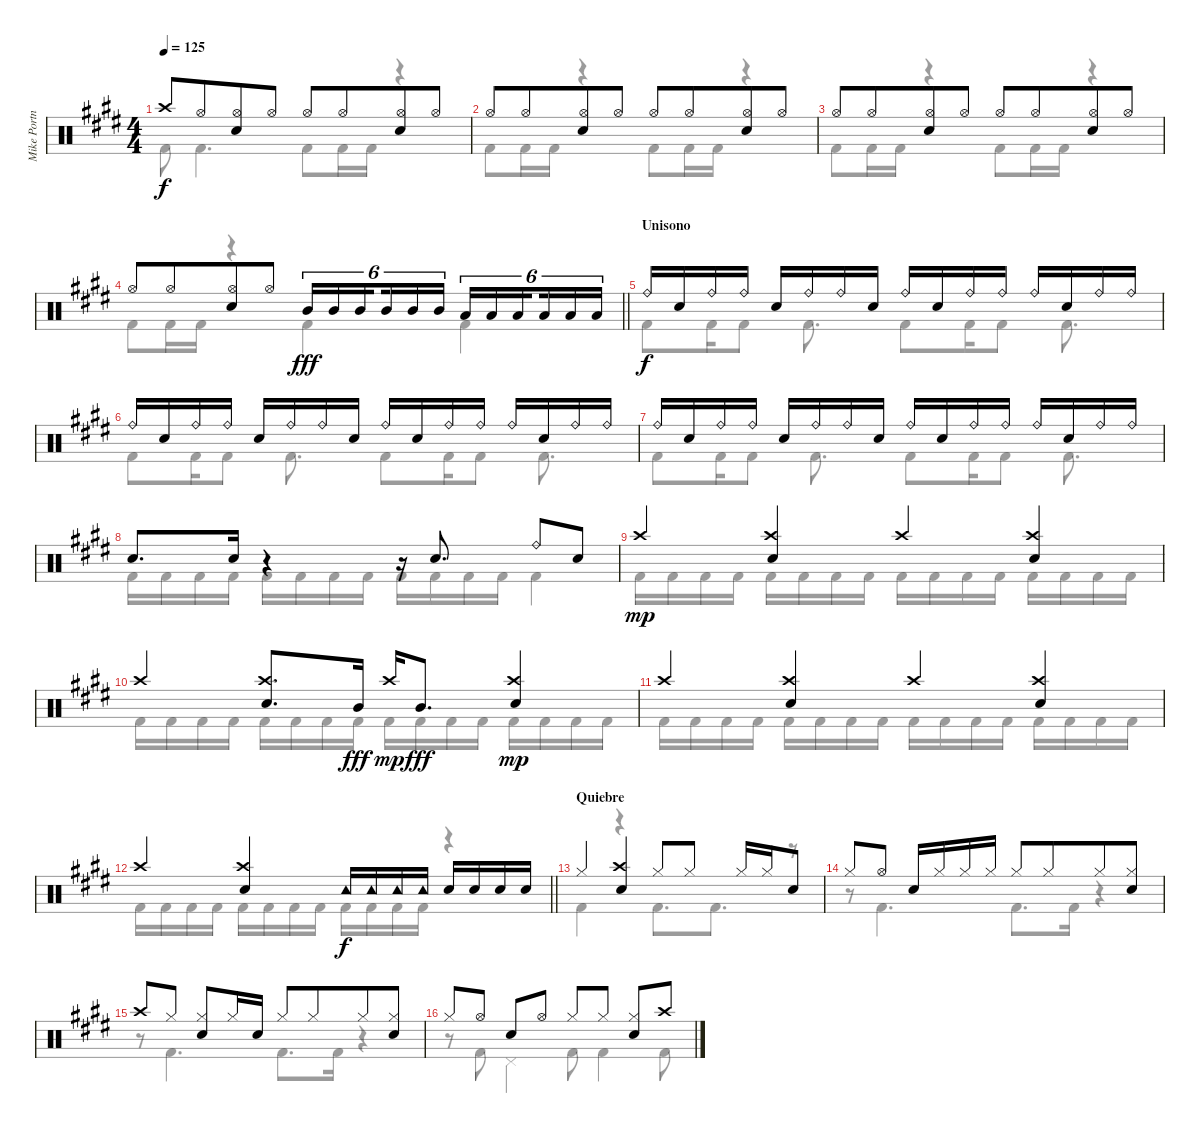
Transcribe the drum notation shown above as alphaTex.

\track ("Mike Portnoy" "Mike Portn") {instrument percussion}
\staff {score}
\articulation defaults
\voice
\ts (4 4)
\tempo 125
\clef neutral
\ks e "Crash high (hit)".8{dy f} "Hi-Hat (open)".8{beam merge}
("Hi-Hat (open)" "Snare (hit) 2").8 "Hi-Hat (open)".8 "Hi-Hat (open)".8 "Hi-Hat (open)".8{beam merge} ("Hi-Hat (open)" "Snare (hit) 2").8 "Hi-Hat (open)".8 |
"Hi-Hat (open)".8 "Hi-Hat (open)".8{beam merge} ("Hi-Hat (open)" "Snare (hit) 2").8 "Hi-Hat (open)".8 "Hi-Hat (open)".8 "Hi-Hat (open)".8{beam merge} ("Hi-Hat (open)" "Snare (hit) 2").8 "Hi-Hat (open)".8 |
"Hi-Hat (open)".8 "Hi-Hat (open)".8{beam merge} ("Hi-Hat (open)" "Snare (hit) 2").8 "Hi-Hat (open)".8 "Hi-Hat (open)".8 "Hi-Hat (open)".8{beam merge} ("Hi-Hat (open)" "Snare (hit) 2").8 "Hi-Hat (open)".8 |
\barLineRight lightlight "Hi-Hat (open)".8 "Hi-Hat (open)".8{beam merge}
("Hi-Hat (open)" "Snare (hit) 2").8 "Hi-Hat (open)".8 "Mid Tom (hit)".16{tu (6 4) dy fff volume 16} "Mid Tom (hit)".16{tu (6 4)} "Mid Tom (hit)".16{tu (6 4) beam splitsecondary} "Mid Tom (hit)".16{tu (6 4)} "Mid Tom (hit)".16{tu (6 4)} "Mid Tom (hit)".16{tu (6 4)} "Low Tom (hit)".16{tu (6 4)} "Low Tom (hit)".16{tu (6 4)} "Low Tom (hit)".16{tu (6 4) beam splitsecondary} "Low Tom (hit)".16{tu (6 4)} "Low Tom (hit)".16{tu (6 4)} "Low Tom (hit)".16{tu (6 4)} |
\section ("" "Unisono")
"Ride (bell)".16{dy f volume 13} "Snare (hit) 2".16 "Ride (bell)".16 "Ride (bell)".16 "Snare (hit) 2".16 "Ride (bell)".16 "Ride (bell)".16 "Snare (hit) 2".16 "Ride (bell)".16 "Snare (hit) 2".16 "Ride (bell)".16 "Ride (bell)".16 "Ride (bell)".16 "Snare (hit) 2".16 "Ride (bell)".16 "Ride (bell)".16 |
"Ride (bell)".16 "Snare (hit) 2".16 "Ride (bell)".16 "Ride (bell)".16 "Snare (hit) 2".16 "Ride (bell)".16 "Ride (bell)".16 "Snare (hit) 2".16 "Ride (bell)".16 "Snare (hit) 2".16 "Ride (bell)".16 "Ride (bell)".16 "Ride (bell)".16 "Snare (hit) 2".16 "Ride (bell)".16 "Ride (bell)".16 |
"Ride (bell)".16 "Snare (hit) 2".16 "Ride (bell)".16 "Ride (bell)".16 "Snare (hit) 2".16 "Ride (bell)".16 "Ride (bell)".16 "Snare (hit) 2".16 "Ride (bell)".16 "Snare (hit) 2".16 "Ride (bell)".16 "Ride (bell)".16 "Ride (bell)".16 "Snare (hit) 2".16 "Ride (bell)".16 "Ride (bell)".16 |
"Snare (hit) 2".8{d} "Snare (hit) 2".16 r.4 r.16 "Snare (hit) 2".8{d} "Ride (bell)".8 "Snare (hit) 2".8 |
"Crash high (hit)".4{dy mp} ("Crash high (hit)" "Snare (hit) 2").4 "Crash high (hit)".4 ("Crash high (hit)" "Snare (hit) 2").4 |
"Crash high (hit)".4 ("Crash high (hit)" "Snare (hit) 2").8{d} "Mid Tom (hit)".16{dy fff} "Crash high (hit)".16{dy mp} "Mid Tom (hit)".8{d dy fff} ("Crash high (hit)" "Snare (hit) 2").4{dy mp} |
"Crash high (hit)".4 ("Crash high (hit)" "Snare (hit) 2").4 "Crash high (hit)".4 ("Crash high (hit)" "Snare (hit) 2").4 |
\barLineRight lightlight "Crash high (hit)".4
("Crash high (hit)" "Snare (hit) 2").4 "Tambourine (hit)".16{dy f} "Tambourine (hit)".16 "Tambourine (hit)".16 "Tambourine (hit)".16 "Snare (hit) 2".16 "Snare (hit) 2".16 "Snare (hit) 2".16 "Snare (hit) 2".16 |
\section ("" "Quiebre")
"Hi-Hat (closed)".4 ("Crash high (hit)" "Snare (hit) 2").4 "Hi-Hat (closed)".8 "Hi-Hat (closed)".8 "Hi-Hat (closed)".16 "Hi-Hat (closed)".16 "Snare (hit) 2".8 |
"Hi-Hat (closed)".8 "Hi-Hat (open)".8 "Snare (hit) 2".16 "Hi-Hat (closed)".16 "Hi-Hat (closed)".16 "Hi-Hat (closed)".16 "Hi-Hat (closed)".8 "Hi-Hat (closed)".8{beam merge} "Hi-Hat (closed)".8 ("Hi-Hat (closed)" "Snare (hit) 2").8 |
"Crash high (hit)".8 "Hi-Hat (closed)".8 ("Hi-Hat (closed)" "Snare (hit) 2").8 "Hi-Hat (closed)".16 "Snare (hit) 2".16 "Hi-Hat (closed)".8 "Hi-Hat (closed)".8{beam merge} "Hi-Hat (closed)".8 ("Hi-Hat (closed)" "Snare (hit) 2").8 |
"Hi-Hat (closed)".8 "Hi-Hat (open)".8 "Snare (hit) 2".8 "Hi-Hat (open)".8 "Hi-Hat (closed)".8 "Hi-Hat (closed)".8 ("Hi-Hat (closed)" "Snare (hit) 2").8 "Crash high (hit)".8
\voice
\clef neutral
\ottava regular
\simile none
\ks e "Kick (hit) 2".8{dy f} "Kick (hit) 2".4{d} "Kick (hit) 2".8 "Kick (hit) 2".16 "Kick (hit) 2".16
r.4 |
"Kick (hit) 2".8 "Kick (hit) 2".16 "Kick (hit) 2".16 r.4 "Kick (hit) 2".8 "Kick (hit) 2".16 "Kick (hit) 2".16 r.4 |
"Kick (hit) 2".8 "Kick (hit) 2".16 "Kick (hit) 2".16 r.4 "Kick (hit) 2".8 "Kick (hit) 2".16 "Kick (hit) 2".16 r.4 |
\barLineRight lightlight "Kick (hit) 2".8 "Kick (hit) 2".16 "Kick (hit) 2".16
r.4 "Kick (hit) 2".4 "Kick (hit) 2".4 |
"Kick (hit) 2".8 "Kick (hit) 2".16 "Kick (hit) 2".8 "Kick (hit) 2".8{d} "Kick (hit) 2".8 "Kick (hit) 2".16 "Kick (hit) 2".8 "Kick (hit) 2".8{d} |
"Kick (hit) 2".8 "Kick (hit) 2".16 "Kick (hit) 2".8 "Kick (hit) 2".8{d} "Kick (hit) 2".8 "Kick (hit) 2".16 "Kick (hit) 2".8 "Kick (hit) 2".8{d} |
"Kick (hit) 2".8 "Kick (hit) 2".16 "Kick (hit) 2".8 "Kick (hit) 2".8{d} "Kick (hit) 2".8 "Kick (hit) 2".16 "Kick (hit) 2".8 "Kick (hit) 2".8{d} |
"Kick (hit) 2".16 "Kick (hit) 2".16 "Kick (hit) 2".16 "Kick (hit) 2".16 "Kick (hit) 2".16 "Kick (hit) 2".16 "Kick (hit) 2".16 "Kick (hit) 2".16 "Kick (hit) 2".16 "Kick (hit) 2".16 "Kick (hit) 2".16 "Kick (hit) 2".16 "Kick (hit) 2".4 |
"Kick (hit) 2".16 "Kick (hit) 2".16 "Kick (hit) 2".16 "Kick (hit) 2".16 "Kick (hit) 2".16 "Kick (hit) 2".16 "Kick (hit) 2".16 "Kick (hit) 2".16 "Kick (hit) 2".16 "Kick (hit) 2".16 "Kick (hit) 2".16 "Kick (hit) 2".16 "Kick (hit) 2".16 "Kick (hit) 2".16 "Kick (hit) 2".16 "Kick (hit) 2".16 |
"Kick (hit) 2".16 "Kick (hit) 2".16 "Kick (hit) 2".16 "Kick (hit) 2".16 "Kick (hit) 2".16 "Kick (hit) 2".16 "Kick (hit) 2".16 "Kick (hit) 2".16 "Kick (hit) 2".16 "Kick (hit) 2".16 "Kick (hit) 2".16 "Kick (hit) 2".16 "Kick (hit) 2".16 "Kick (hit) 2".16 "Kick (hit) 2".16 "Kick (hit) 2".16 |
"Kick (hit) 2".16 "Kick (hit) 2".16 "Kick (hit) 2".16 "Kick (hit) 2".16 "Kick (hit) 2".16 "Kick (hit) 2".16 "Kick (hit) 2".16 "Kick (hit) 2".16 "Kick (hit) 2".16 "Kick (hit) 2".16 "Kick (hit) 2".16 "Kick (hit) 2".16 "Kick (hit) 2".16 "Kick (hit) 2".16 "Kick (hit) 2".16 "Kick (hit) 2".16 |
\barLineRight lightlight "Kick (hit) 2".16 "Kick (hit) 2".16 "Kick (hit) 2".16 "Kick (hit) 2".16 "Kick (hit) 2".16 "Kick (hit) 2".16 "Kick (hit) 2".16 "Kick (hit) 2".16 "Kick (hit) 2".16 "Kick (hit) 2".16 "Kick (hit) 2".16 "Kick (hit) 2".16
r.4 |
"Kick (hit) 2".4 r.4 "Kick (hit) 2".8{d} "Kick (hit) 2".8{d} r.8 |
r.8 "Kick (hit) 2".4{d} "Kick (hit) 2".8{d} "Kick (hit) 2".16 r.4 |
r.8 "Kick (hit) 2".4{d} "Kick (hit) 2".8{d} "Kick (hit) 2".16 r.4 |
r.8 "Kick (hit) 2".8 "Pedal Hi-Hat (hit)".4 "Kick (hit) 2".8 "Kick (hit) 2".4 "Kick (hit) 2".8
